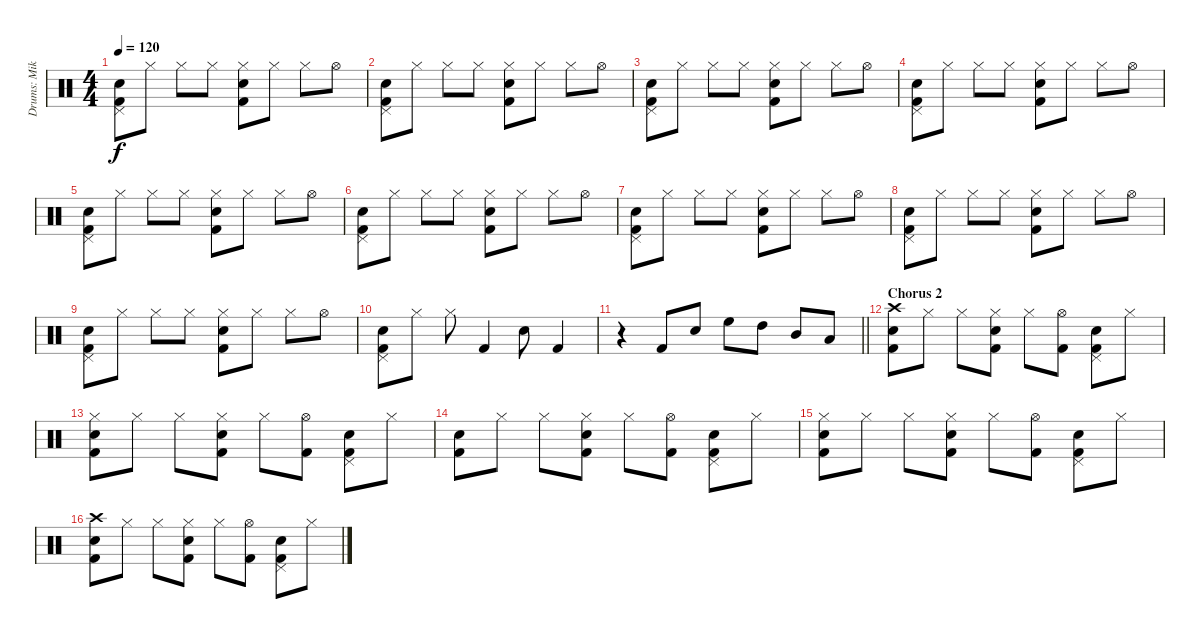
\track ("Drums: Mike Botts" "Drums: Mik") {instrument percussion}
\staff {score}
\articulation defaults
\ts (4 4)
\tempo 120
\clef neutral
\ks c
("Pedal Hi-Hat (hit)" "Snare (hit) 2" "Kick (hit) 2").8{dy f} "Hi-Hat (closed)".8 "Hi-Hat (closed)".8 "Hi-Hat (closed)".8 ("Hi-Hat (closed)" "Electric Snare (hit)" "Kick (hit) 2").8 "Hi-Hat (closed)".8 "Hi-Hat (closed)".8 "Hi-Hat (open)".8 |
("Pedal Hi-Hat (hit)" "Snare (hit) 2" "Kick (hit) 2").8 "Hi-Hat (closed)".8 "Hi-Hat (closed)".8 "Hi-Hat (closed)".8 ("Hi-Hat (closed)" "Electric Snare (hit)" "Kick (hit) 2").8 "Hi-Hat (closed)".8 "Hi-Hat (closed)".8 "Hi-Hat (open)".8 |
("Pedal Hi-Hat (hit)" "Snare (hit) 2" "Kick (hit) 2").8 "Hi-Hat (closed)".8 "Hi-Hat (closed)".8 "Hi-Hat (closed)".8 ("Hi-Hat (closed)" "Electric Snare (hit)" "Kick (hit) 2").8 "Hi-Hat (closed)".8 "Hi-Hat (closed)".8 "Hi-Hat (open)".8 |
("Pedal Hi-Hat (hit)" "Snare (hit) 2" "Kick (hit) 2").8 "Hi-Hat (closed)".8 "Hi-Hat (closed)".8 "Hi-Hat (closed)".8 ("Hi-Hat (closed)" "Electric Snare (hit)" "Kick (hit) 2").8 "Hi-Hat (closed)".8 "Hi-Hat (closed)".8 "Hi-Hat (open)".8 |
("Pedal Hi-Hat (hit)" "Snare (hit) 2" "Kick (hit) 2").8 "Hi-Hat (closed)".8 "Hi-Hat (closed)".8 "Hi-Hat (closed)".8 ("Hi-Hat (closed)" "Electric Snare (hit)" "Kick (hit) 2").8 "Hi-Hat (closed)".8 "Hi-Hat (closed)".8 "Hi-Hat (open)".8 |
("Pedal Hi-Hat (hit)" "Snare (hit) 2" "Kick (hit) 2").8 "Hi-Hat (closed)".8 "Hi-Hat (closed)".8 "Hi-Hat (closed)".8 ("Hi-Hat (closed)" "Electric Snare (hit)" "Kick (hit) 2").8 "Hi-Hat (closed)".8 "Hi-Hat (closed)".8 "Hi-Hat (open)".8 |
("Pedal Hi-Hat (hit)" "Snare (hit) 2" "Kick (hit) 2").8 "Hi-Hat (closed)".8 "Hi-Hat (closed)".8 "Hi-Hat (closed)".8 ("Hi-Hat (closed)" "Electric Snare (hit)" "Kick (hit) 2").8 "Hi-Hat (closed)".8 "Hi-Hat (closed)".8 "Hi-Hat (open)".8 |
("Pedal Hi-Hat (hit)" "Snare (hit) 2" "Kick (hit) 2").8 "Hi-Hat (closed)".8 "Hi-Hat (closed)".8 "Hi-Hat (closed)".8 ("Hi-Hat (closed)" "Electric Snare (hit)" "Kick (hit) 2").8 "Hi-Hat (closed)".8 "Hi-Hat (closed)".8 "Hi-Hat (open)".8 |
("Pedal Hi-Hat (hit)" "Snare (hit) 2" "Kick (hit) 2").8 "Hi-Hat (closed)".8 "Hi-Hat (closed)".8 "Hi-Hat (closed)".8 ("Hi-Hat (closed)" "Electric Snare (hit)" "Kick (hit) 2").8 "Hi-Hat (closed)".8 "Hi-Hat (closed)".8 "Hi-Hat (open)".8 |
("Pedal Hi-Hat (hit)" "Snare (hit) 2" "Kick (hit) 2").8 "Hi-Hat (closed)".8 "Hi-Hat (closed)".8 "Kick (hit) 2".4 "Snare (hit) 2".8 "Kick (hit) 2".4 |
\barLineRight lightlight
r.4 "Kick (hit) 2".8 "Snare (hit) 2".8 "High Floor Tom (hit)".8 "High Tom (hit)".8 "Mid Tom (hit)".8 "Low Tom (hit)".8 |
\section ("" "Chorus 2")
("Crash high (hit)" "Snare (hit) 2" "Kick (hit) 2").8 "Hi-Hat (closed)".8 "Hi-Hat (closed)".8 ("Hi-Hat (closed)" "Snare (hit) 2" "Kick (hit) 2").8 "Hi-Hat (closed)".8 ("Hi-Hat (open)" "Kick (hit) 2").8 ("Pedal Hi-Hat (hit)" "Snare (hit) 2" "Kick (hit) 2").8 "Hi-Hat (closed)".8 |
("Hi-Hat (closed)" "Snare (hit) 2" "Kick (hit) 2").8 "Hi-Hat (closed)".8 "Hi-Hat (closed)".8 ("Hi-Hat (closed)" "Snare (hit) 2" "Kick (hit) 2").8 "Hi-Hat (closed)".8 ("Hi-Hat (open)" "Kick (hit) 2").8 ("Pedal Hi-Hat (hit)" "Snare (hit) 2" "Kick (hit) 2").8 "Hi-Hat (closed)".8 |
("Snare (hit) 2" "Kick (hit) 2").8 "Hi-Hat (closed)".8 "Hi-Hat (closed)".8 ("Hi-Hat (closed)" "Snare (hit) 2" "Kick (hit) 2").8 "Hi-Hat (closed)".8 ("Hi-Hat (open)" "Kick (hit) 2").8 ("Pedal Hi-Hat (hit)" "Snare (hit) 2" "Kick (hit) 2").8 "Hi-Hat (closed)".8 |
("Hi-Hat (closed)" "Snare (hit) 2" "Kick (hit) 2").8 "Hi-Hat (closed)".8 "Hi-Hat (closed)".8 ("Hi-Hat (closed)" "Snare (hit) 2" "Kick (hit) 2").8 "Hi-Hat (closed)".8 ("Hi-Hat (open)" "Kick (hit) 2").8 ("Pedal Hi-Hat (hit)" "Snare (hit) 2" "Kick (hit) 2").8 "Hi-Hat (closed)".8 |
("Crash high (hit)" "Snare (hit) 2" "Kick (hit) 2").8 "Hi-Hat (closed)".8 "Hi-Hat (closed)".8 ("Hi-Hat (closed)" "Snare (hit) 2" "Kick (hit) 2").8 "Hi-Hat (closed)".8 ("Hi-Hat (open)" "Kick (hit) 2").8 ("Pedal Hi-Hat (hit)" "Snare (hit) 2" "Kick (hit) 2").8 "Hi-Hat (closed)".8
